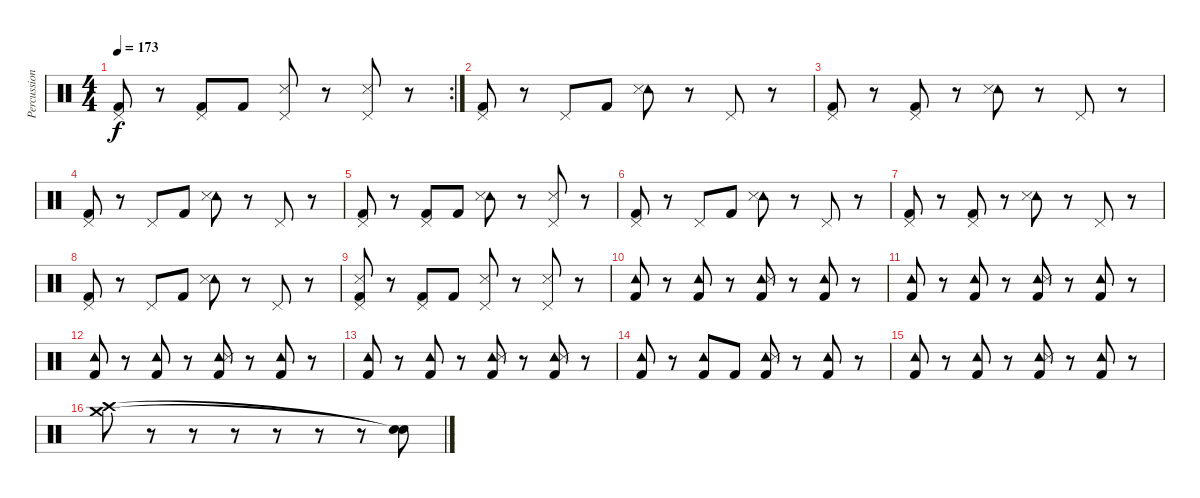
\track ("Percussion" "Percussion") {instrument percussion}
\staff {score}
\articulation defaults
\rc 2
\ts (4 4)
\tempo 173
\clef neutral
\ks c
("Pedal Hi-Hat (hit)" "Kick (hit) 2").8{dy f} r.8 ("Pedal Hi-Hat (hit)" "Kick (hit) 2").8 "Kick (hit) 2".8 ("Pedal Hi-Hat (hit)" "Snare (side stick) 3").8 r.8 ("Pedal Hi-Hat (hit)" "Snare (side stick) 3").8 r.8 |
("Pedal Hi-Hat (hit)" "Kick (hit) 2").8 r.8 "Pedal Hi-Hat (hit)".8 "Kick (hit) 2".8 ("Tambourine (hit)" "Snare (side stick) 3").8 r.8 "Pedal Hi-Hat (hit)".8 r.8 |
("Pedal Hi-Hat (hit)" "Kick (hit) 2").8 r.8 ("Pedal Hi-Hat (hit)" "Kick (hit) 2").8 r.8 ("Tambourine (hit)" "Snare (side stick) 3").8 r.8 "Pedal Hi-Hat (hit)".8 r.8 |
("Pedal Hi-Hat (hit)" "Kick (hit) 2").8 r.8 "Pedal Hi-Hat (hit)".8 "Kick (hit) 2".8 ("Tambourine (hit)" "Snare (side stick) 3").8 r.8 "Pedal Hi-Hat (hit)".8 r.8 |
("Pedal Hi-Hat (hit)" "Kick (hit) 2").8 r.8 ("Pedal Hi-Hat (hit)" "Kick (hit) 2").8 "Kick (hit) 2".8 ("Tambourine (hit)" "Snare (side stick) 3").8 r.8 ("Pedal Hi-Hat (hit)" "Snare (side stick) 3").8 r.8 |
("Pedal Hi-Hat (hit)" "Kick (hit) 2").8 r.8 "Pedal Hi-Hat (hit)".8 "Kick (hit) 2".8 ("Tambourine (hit)" "Snare (side stick) 3").8 r.8 "Pedal Hi-Hat (hit)".8 r.8 |
("Pedal Hi-Hat (hit)" "Kick (hit) 2").8 r.8 ("Pedal Hi-Hat (hit)" "Kick (hit) 2").8 r.8 ("Tambourine (hit)" "Snare (side stick) 3").8 r.8 "Pedal Hi-Hat (hit)".8 r.8 |
("Pedal Hi-Hat (hit)" "Kick (hit) 2").8 r.8 "Pedal Hi-Hat (hit)".8 "Kick (hit) 2".8 ("Tambourine (hit)" "Snare (side stick) 3").8 r.8 "Pedal Hi-Hat (hit)".8 r.8 |
("Pedal Hi-Hat (hit)" "Snare (side stick) 3" "Kick (hit) 2").8 r.8 ("Pedal Hi-Hat (hit)" "Kick (hit) 2").8 "Kick (hit) 2".8 ("Pedal Hi-Hat (hit)" "Snare (side stick) 3").8 r.8 ("Pedal Hi-Hat (hit)" "Snare (side stick) 3").8 r.8 |
("Tambourine (hit)" "Kick (hit) 2").8 r.8 ("Tambourine (hit)" "Kick (hit) 2").8 r.8 ("Tambourine (hit)" "Snare (side stick) 3" "Kick (hit) 2").8 r.8 ("Tambourine (hit)" "Kick (hit) 2").8 r.8 |
("Tambourine (hit)" "Kick (hit) 2").8 r.8 ("Tambourine (hit)" "Kick (hit) 2").8 r.8 ("Tambourine (hit)" "Snare (side stick) 3" "Kick (hit) 2").8 r.8 ("Tambourine (hit)" "Kick (hit) 2").8 r.8 |
("Tambourine (hit)" "Kick (hit) 2").8 r.8 ("Tambourine (hit)" "Kick (hit) 2").8 r.8 ("Tambourine (hit)" "Snare (side stick) 3" "Kick (hit) 2").8 r.8 ("Tambourine (hit)" "Kick (hit) 2").8 r.8 |
("Tambourine (hit)" "Kick (hit) 2").8 r.8 ("Tambourine (hit)" "Kick (hit) 2").8 r.8 ("Tambourine (hit)" "Snare (side stick) 3" "Kick (hit) 2").8 r.8 ("Tambourine (hit)" "Snare (side stick) 3" "Kick (hit) 2").8 r.8 |
("Tambourine (hit)" "Kick (hit) 2").8 r.8 ("Tambourine (hit)" "Kick (hit) 2").8 "Kick (hit) 2".8 ("Tambourine (hit)" "Snare (side stick) 3" "Kick (hit) 2").8 r.8 ("Tambourine (hit)" "Kick (hit) 2").8 r.8 |
("Tambourine (hit)" "Kick (hit) 2").8 r.8 ("Tambourine (hit)" "Kick (hit) 2").8 r.8 ("Tambourine (hit)" "Snare (side stick) 3" "Kick (hit) 2").8 r.8 ("Tambourine (hit)" "Kick (hit) 2").8 r.8 |
("Crash high (hit)" "Crash medium (hit)").8 r.8 r.8 r.8 r.8 r.8 r.8 ("Snare (hit)"{t} "Snare (hit)"{t}).8
